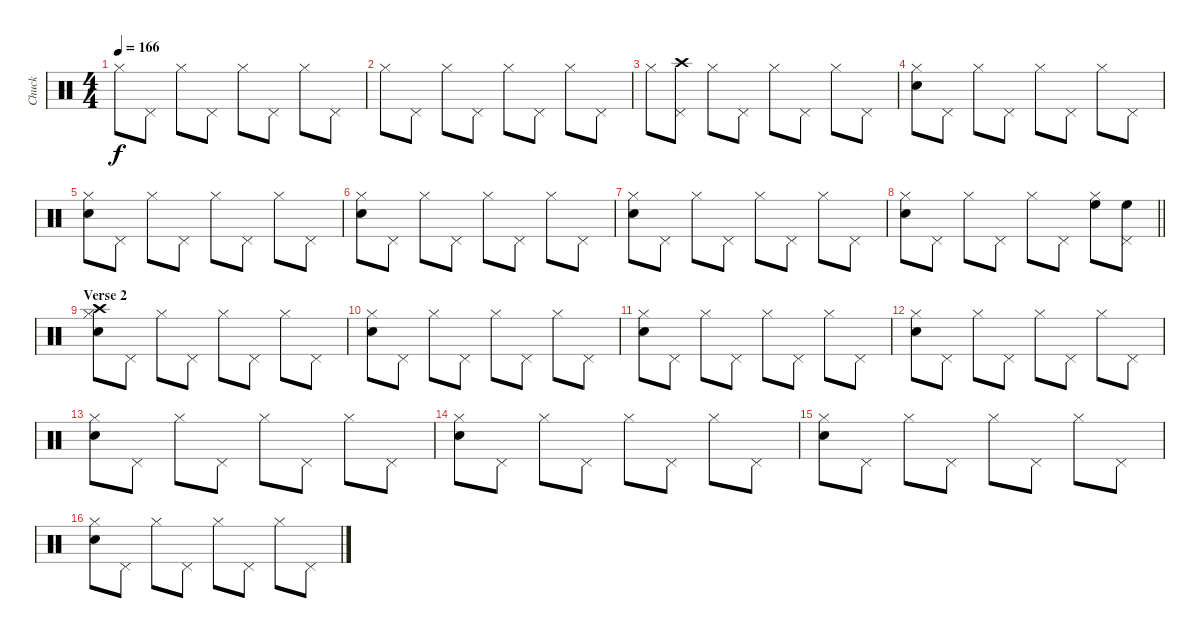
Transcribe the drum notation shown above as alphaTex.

\track ("Chuck" "Chuck") {instrument percussion}
\staff {score}
\articulation defaults
\ts (4 4)
\tempo 166
\clef neutral
\ks c "Hi-Hat (closed)".8{dy f} "Pedal Hi-Hat (hit)".8 "Hi-Hat (closed)".8 "Pedal Hi-Hat (hit)".8 "Hi-Hat (closed)".8 "Pedal Hi-Hat (hit)".8 "Hi-Hat (closed)".8 "Pedal Hi-Hat (hit)".8
|
"Hi-Hat (closed)".8 "Pedal Hi-Hat (hit)".8 "Hi-Hat (closed)".8 "Pedal Hi-Hat (hit)".8 "Hi-Hat (closed)".8 "Pedal Hi-Hat (hit)".8 "Hi-Hat (closed)".8 "Pedal Hi-Hat (hit)".8 |
"Hi-Hat (closed)".8 ("Pedal Hi-Hat (hit)" "Crash high (hit)").8 "Hi-Hat (closed)".8 "Pedal Hi-Hat (hit)".8 "Hi-Hat (closed)".8 "Pedal Hi-Hat (hit)".8 "Hi-Hat (closed)".8 "Pedal Hi-Hat (hit)".8 |
("Hi-Hat (closed)" "Hand Clap (hit)").8 "Pedal Hi-Hat (hit)".8 "Hi-Hat (closed)".8 "Pedal Hi-Hat (hit)".8 "Hi-Hat (closed)".8 "Pedal Hi-Hat (hit)".8 "Hi-Hat (closed)".8 "Pedal Hi-Hat (hit)".8 |
("Hi-Hat (closed)" "Hand Clap (hit)").8 "Pedal Hi-Hat (hit)".8 "Hi-Hat (closed)".8 "Pedal Hi-Hat (hit)".8 "Hi-Hat (closed)".8 "Pedal Hi-Hat (hit)".8 "Hi-Hat (closed)".8 "Pedal Hi-Hat (hit)".8 |
("Hi-Hat (closed)" "Hand Clap (hit)").8 "Pedal Hi-Hat (hit)".8 "Hi-Hat (closed)".8 "Pedal Hi-Hat (hit)".8 "Hi-Hat (closed)".8 "Pedal Hi-Hat (hit)".8 "Hi-Hat (closed)".8 "Pedal Hi-Hat (hit)".8 |
("Hi-Hat (closed)" "Hand Clap (hit)").8 "Pedal Hi-Hat (hit)".8 "Hi-Hat (closed)".8 "Pedal Hi-Hat (hit)".8 "Hi-Hat (closed)".8 "Pedal Hi-Hat (hit)".8 "Hi-Hat (closed)".8 "Pedal Hi-Hat (hit)".8 |
\barLineRight lightlight
("Hi-Hat (closed)" "Hand Clap (hit)").8 "Pedal Hi-Hat (hit)".8 "Hi-Hat (closed)".8 "Pedal Hi-Hat (hit)".8 "Hi-Hat (closed)".8 "Pedal Hi-Hat (hit)".8 ("Hi-Hat (closed)" "High Floor Tom (hit)").8 ("Pedal Hi-Hat (hit)" "High Floor Tom (hit)").8 |
\section ("" "Verse 2")
("Hi-Hat (closed)" "Crash high (hit)" "Hand Clap (hit)").8 "Pedal Hi-Hat (hit)".8 "Hi-Hat (closed)".8 "Pedal Hi-Hat (hit)".8 "Hi-Hat (closed)".8 "Pedal Hi-Hat (hit)".8 "Hi-Hat (closed)".8 "Pedal Hi-Hat (hit)".8 |
("Hi-Hat (closed)" "Hand Clap (hit)").8 "Pedal Hi-Hat (hit)".8 "Hi-Hat (closed)".8 "Pedal Hi-Hat (hit)".8 "Hi-Hat (closed)".8 "Pedal Hi-Hat (hit)".8 "Hi-Hat (closed)".8 "Pedal Hi-Hat (hit)".8 |
("Hi-Hat (closed)" "Hand Clap (hit)").8 "Pedal Hi-Hat (hit)".8 "Hi-Hat (closed)".8 "Pedal Hi-Hat (hit)".8 "Hi-Hat (closed)".8 "Pedal Hi-Hat (hit)".8 "Hi-Hat (closed)".8 "Pedal Hi-Hat (hit)".8 |
("Hi-Hat (closed)" "Hand Clap (hit)").8 "Pedal Hi-Hat (hit)".8 "Hi-Hat (closed)".8 "Pedal Hi-Hat (hit)".8 "Hi-Hat (closed)".8 "Pedal Hi-Hat (hit)".8 "Hi-Hat (closed)".8 "Pedal Hi-Hat (hit)".8 |
("Hi-Hat (closed)" "Hand Clap (hit)").8 "Pedal Hi-Hat (hit)".8 "Hi-Hat (closed)".8 "Pedal Hi-Hat (hit)".8 "Hi-Hat (closed)".8 "Pedal Hi-Hat (hit)".8 "Hi-Hat (closed)".8 "Pedal Hi-Hat (hit)".8 |
("Hi-Hat (closed)" "Hand Clap (hit)").8 "Pedal Hi-Hat (hit)".8 "Hi-Hat (closed)".8 "Pedal Hi-Hat (hit)".8 "Hi-Hat (closed)".8 "Pedal Hi-Hat (hit)".8 "Hi-Hat (closed)".8 "Pedal Hi-Hat (hit)".8 |
("Hi-Hat (closed)" "Hand Clap (hit)").8 "Pedal Hi-Hat (hit)".8 "Hi-Hat (closed)".8 "Pedal Hi-Hat (hit)".8 "Hi-Hat (closed)".8 "Pedal Hi-Hat (hit)".8 "Hi-Hat (closed)".8 "Pedal Hi-Hat (hit)".8 |
("Hi-Hat (closed)" "Hand Clap (hit)").8 "Pedal Hi-Hat (hit)".8 "Hi-Hat (closed)".8 "Pedal Hi-Hat (hit)".8 "Hi-Hat (closed)".8 "Pedal Hi-Hat (hit)".8 "Hi-Hat (closed)".8 "Pedal Hi-Hat (hit)".8
